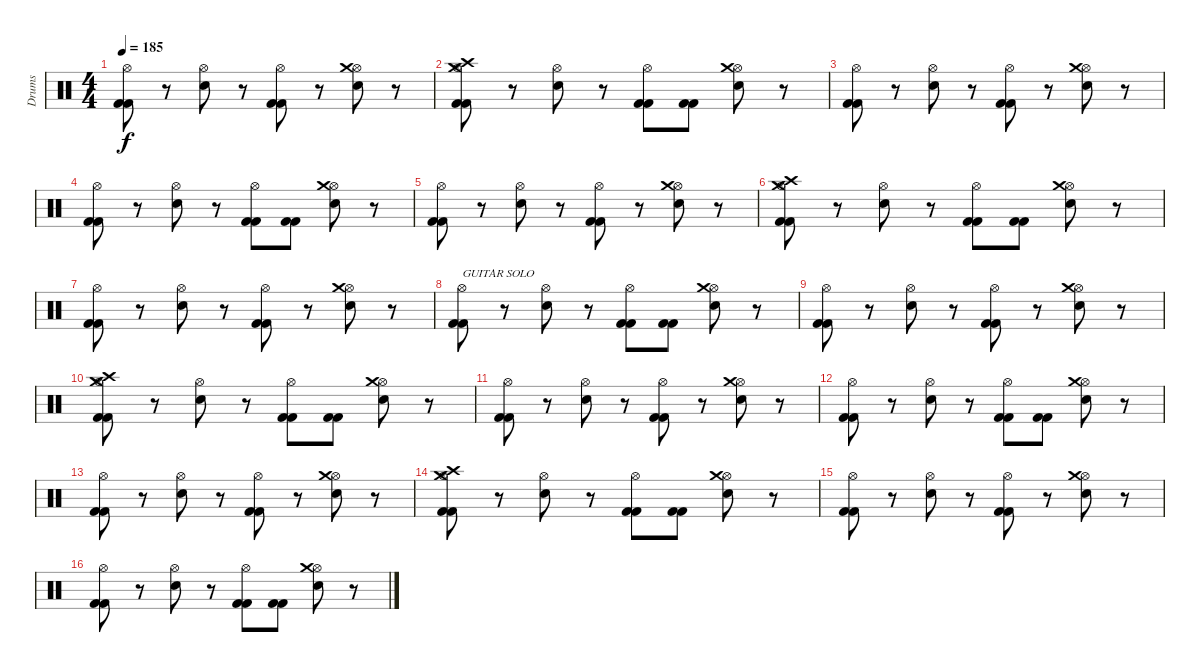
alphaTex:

\track ("Drums" "Drums") {instrument percussion}
\staff {score}
\articulation defaults
\ts (4 4)
\tempo 185
\clef neutral
\ks c
("Kick (hit) 2" "Kick (hit) 2" "Hi-Hat (open)").8{dy f} r.8 ("Hi-Hat (open)" "Snare (hit) 2").8 r.8 ("Kick (hit) 2" "Kick (hit) 2" "Hi-Hat (open)").8 r.8 ("Hi-Hat (open)" "Snare (hit) 2" "Crash medium (hit)").8 r.8 |
("Kick (hit) 2" "Kick (hit) 2" "Hi-Hat (open)" "Crash high (hit)" "Crash medium (hit)").8 r.8 ("Hi-Hat (open)" "Snare (hit) 2").8 r.8 ("Kick (hit) 2" "Kick (hit) 2" "Hi-Hat (open)").8 ("Kick (hit) 2" "Kick (hit) 2").8 ("Hi-Hat (open)" "Snare (hit) 2" "Crash medium (hit)").8 r.8 |
("Kick (hit) 2" "Kick (hit) 2" "Hi-Hat (open)").8 r.8 ("Hi-Hat (open)" "Snare (hit) 2").8 r.8 ("Kick (hit) 2" "Kick (hit) 2" "Hi-Hat (open)").8 r.8 ("Hi-Hat (open)" "Snare (hit) 2" "Crash medium (hit)").8 r.8 |
("Kick (hit) 2" "Kick (hit) 2" "Hi-Hat (open)").8 r.8 ("Hi-Hat (open)" "Snare (hit) 2").8 r.8 ("Kick (hit) 2" "Kick (hit) 2" "Hi-Hat (open)").8 ("Kick (hit) 2" "Kick (hit) 2").8 ("Hi-Hat (open)" "Snare (hit) 2" "Crash medium (hit)").8 r.8 |
("Kick (hit) 2" "Kick (hit) 2" "Hi-Hat (open)").8 r.8 ("Hi-Hat (open)" "Snare (hit) 2").8 r.8 ("Kick (hit) 2" "Kick (hit) 2" "Hi-Hat (open)").8 r.8 ("Hi-Hat (open)" "Snare (hit) 2" "Crash medium (hit)").8 r.8 |
("Kick (hit) 2" "Kick (hit) 2" "Hi-Hat (open)" "Crash high (hit)" "Crash medium (hit)").8 r.8 ("Hi-Hat (open)" "Snare (hit) 2").8 r.8 ("Kick (hit) 2" "Kick (hit) 2" "Hi-Hat (open)").8 ("Kick (hit) 2" "Kick (hit) 2").8 ("Hi-Hat (open)" "Snare (hit) 2" "Crash medium (hit)").8 r.8 |
("Kick (hit) 2" "Kick (hit) 2" "Hi-Hat (open)").8 r.8 ("Hi-Hat (open)" "Snare (hit) 2").8 r.8 ("Kick (hit) 2" "Kick (hit) 2" "Hi-Hat (open)").8 r.8 ("Hi-Hat (open)" "Snare (hit) 2" "Crash medium (hit)").8 r.8 |
("Kick (hit) 2" "Kick (hit) 2" "Hi-Hat (open)").8{txt "GUITAR SOLO"} r.8 ("Hi-Hat (open)" "Snare (hit) 2").8 r.8 ("Kick (hit) 2" "Kick (hit) 2" "Hi-Hat (open)").8 ("Kick (hit) 2" "Kick (hit) 2").8 ("Hi-Hat (open)" "Snare (hit) 2" "Crash medium (hit)").8 r.8 |
("Kick (hit) 2" "Kick (hit) 2" "Hi-Hat (open)").8 r.8 ("Hi-Hat (open)" "Snare (hit) 2").8 r.8 ("Kick (hit) 2" "Kick (hit) 2" "Hi-Hat (open)").8 r.8 ("Hi-Hat (open)" "Snare (hit) 2" "Crash medium (hit)").8 r.8 |
("Kick (hit) 2" "Kick (hit) 2" "Hi-Hat (open)" "Crash high (hit)" "Crash medium (hit)").8 r.8 ("Hi-Hat (open)" "Snare (hit) 2").8 r.8 ("Kick (hit) 2" "Kick (hit) 2" "Hi-Hat (open)").8 ("Kick (hit) 2" "Kick (hit) 2").8 ("Hi-Hat (open)" "Snare (hit) 2" "Crash medium (hit)").8 r.8 |
("Kick (hit) 2" "Kick (hit) 2" "Hi-Hat (open)").8 r.8 ("Hi-Hat (open)" "Snare (hit) 2").8 r.8 ("Kick (hit) 2" "Kick (hit) 2" "Hi-Hat (open)").8 r.8 ("Hi-Hat (open)" "Snare (hit) 2" "Crash medium (hit)").8 r.8 |
("Kick (hit) 2" "Kick (hit) 2" "Hi-Hat (open)").8 r.8 ("Hi-Hat (open)" "Snare (hit) 2").8 r.8 ("Kick (hit) 2" "Kick (hit) 2" "Hi-Hat (open)").8 ("Kick (hit) 2" "Kick (hit) 2").8 ("Hi-Hat (open)" "Snare (hit) 2" "Crash medium (hit)").8 r.8 |
("Kick (hit) 2" "Kick (hit) 2" "Hi-Hat (open)").8 r.8 ("Hi-Hat (open)" "Snare (hit) 2").8 r.8 ("Kick (hit) 2" "Kick (hit) 2" "Hi-Hat (open)").8 r.8 ("Hi-Hat (open)" "Snare (hit) 2" "Crash medium (hit)").8 r.8 |
("Kick (hit) 2" "Kick (hit) 2" "Hi-Hat (open)" "Crash high (hit)" "Crash medium (hit)").8 r.8 ("Hi-Hat (open)" "Snare (hit) 2").8 r.8 ("Kick (hit) 2" "Kick (hit) 2" "Hi-Hat (open)").8 ("Kick (hit) 2" "Kick (hit) 2").8 ("Hi-Hat (open)" "Snare (hit) 2" "Crash medium (hit)").8 r.8 |
("Kick (hit) 2" "Kick (hit) 2" "Hi-Hat (open)").8 r.8 ("Hi-Hat (open)" "Snare (hit) 2").8 r.8 ("Kick (hit) 2" "Kick (hit) 2" "Hi-Hat (open)").8 r.8 ("Hi-Hat (open)" "Snare (hit) 2" "Crash medium (hit)").8 r.8 |
("Kick (hit) 2" "Kick (hit) 2" "Hi-Hat (open)").8 r.8 ("Hi-Hat (open)" "Snare (hit) 2").8 r.8 ("Kick (hit) 2" "Kick (hit) 2" "Hi-Hat (open)").8 ("Kick (hit) 2" "Kick (hit) 2").8 ("Hi-Hat (open)" "Snare (hit) 2" "Crash medium (hit)").8 r.8
